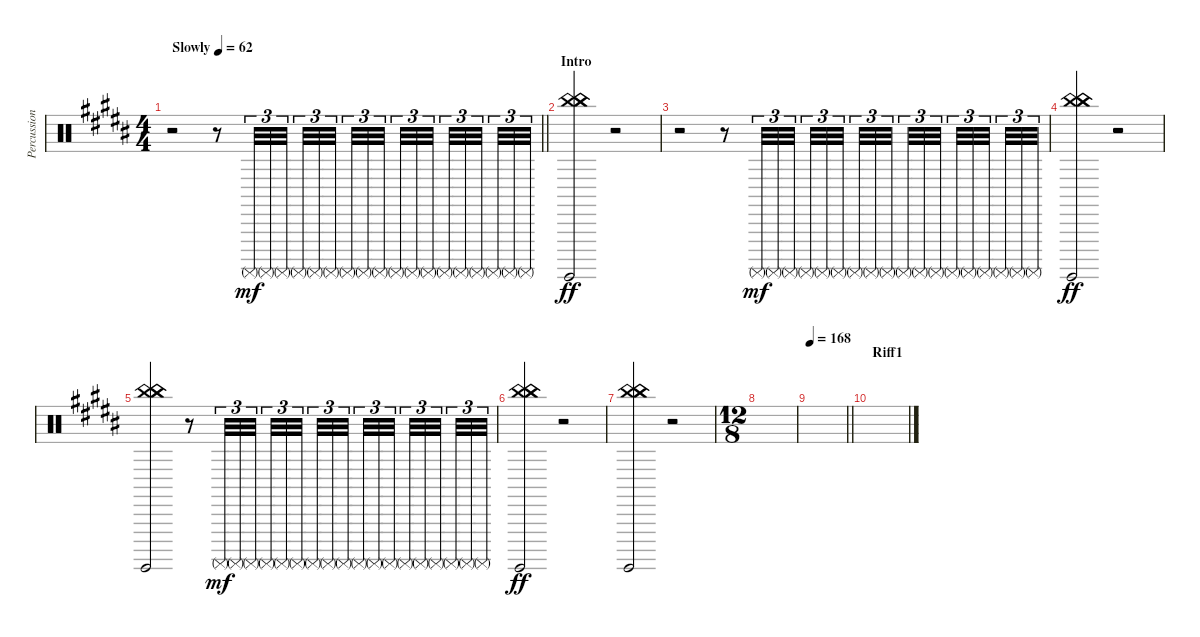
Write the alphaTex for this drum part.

\track ("Percussion" "Percussion") {instrument percussion}
\staff {score}
\articulation defaults
\ts (4 4)
\tempo (62 "Slowly")
\clef neutral
\barLineRight lightlight
\ks b
r.2{dy mf volume 0} r.8 "Surdo (mute)".32{tu (3 2) volume 13} "Surdo (mute)".32{tu (3 2)} "Surdo (mute)".32{tu (3 2) beam splitsecondary} "Surdo (mute)".32{tu (3 2)} "Surdo (mute)".32{tu (3 2)} "Surdo (mute)".32{tu (3 2)} "Surdo (mute)".32{tu (3 2)} "Surdo (mute)".32{tu (3 2)} "Surdo (mute)".32{tu (3 2) beam splitsecondary} "Surdo (mute)".32{tu (3 2)} "Surdo (mute)".32{tu (3 2)} "Surdo (mute)".32{tu (3 2) beam splitsecondary} "Surdo (mute)".32{tu (3 2)} "Surdo (mute)".32{tu (3 2)} "Surdo (mute)".32{tu (3 2) beam splitsecondary} "Surdo (mute)".32{tu (3 2)} "Surdo (mute)".32{tu (3 2)} "Surdo (mute)".32{tu (3 2)} |
\section ("" "Intro")
("China (hit)" "China (hit)" "China (hit)" "Surdo (hit)").2{dy ff} r.2 |
r.2{volume 5} r.8 "Surdo (mute)".32{tu (3 2) dy mf volume 13} "Surdo (mute)".32{tu (3 2)} "Surdo (mute)".32{tu (3 2) beam splitsecondary} "Surdo (mute)".32{tu (3 2)} "Surdo (mute)".32{tu (3 2)} "Surdo (mute)".32{tu (3 2)} "Surdo (mute)".32{tu (3 2)} "Surdo (mute)".32{tu (3 2)} "Surdo (mute)".32{tu (3 2) beam splitsecondary} "Surdo (mute)".32{tu (3 2)} "Surdo (mute)".32{tu (3 2)} "Surdo (mute)".32{tu (3 2) beam splitsecondary} "Surdo (mute)".32{tu (3 2)} "Surdo (mute)".32{tu (3 2)} "Surdo (mute)".32{tu (3 2) beam splitsecondary} "Surdo (mute)".32{tu (3 2)} "Surdo (mute)".32{tu (3 2)} "Surdo (mute)".32{tu (3 2)} |
("China (hit)" "China (hit)" "China (hit)" "Surdo (hit)").2{dy ff} r.2 |
("China (hit)" "China (hit)" "China (hit)" "Surdo (hit)").2 r.8{volume 0} "Surdo (mute)".32{tu (3 2) dy mf volume 13} "Surdo (mute)".32{tu (3 2)} "Surdo (mute)".32{tu (3 2) beam splitsecondary} "Surdo (mute)".32{tu (3 2)} "Surdo (mute)".32{tu (3 2)} "Surdo (mute)".32{tu (3 2)} "Surdo (mute)".32{tu (3 2)} "Surdo (mute)".32{tu (3 2)} "Surdo (mute)".32{tu (3 2) beam splitsecondary} "Surdo (mute)".32{tu (3 2)} "Surdo (mute)".32{tu (3 2)} "Surdo (mute)".32{tu (3 2) beam splitsecondary} "Surdo (mute)".32{tu (3 2)} "Surdo (mute)".32{tu (3 2)} "Surdo (mute)".32{tu (3 2) beam splitsecondary} "Surdo (mute)".32{tu (3 2)} "Surdo (mute)".32{tu (3 2)} "Surdo (mute)".32{tu (3 2)} |
("China (hit)" "China (hit)" "China (hit)" "Surdo (hit)").2{dy ff} r.2 |
("China (hit)" "China (hit)" "China (hit)" "Surdo (hit)").2 r.2 |
\ts (12 8)
|
\tempo 168
\barLineRight lightlight
|
\section ("" "Riff1")
